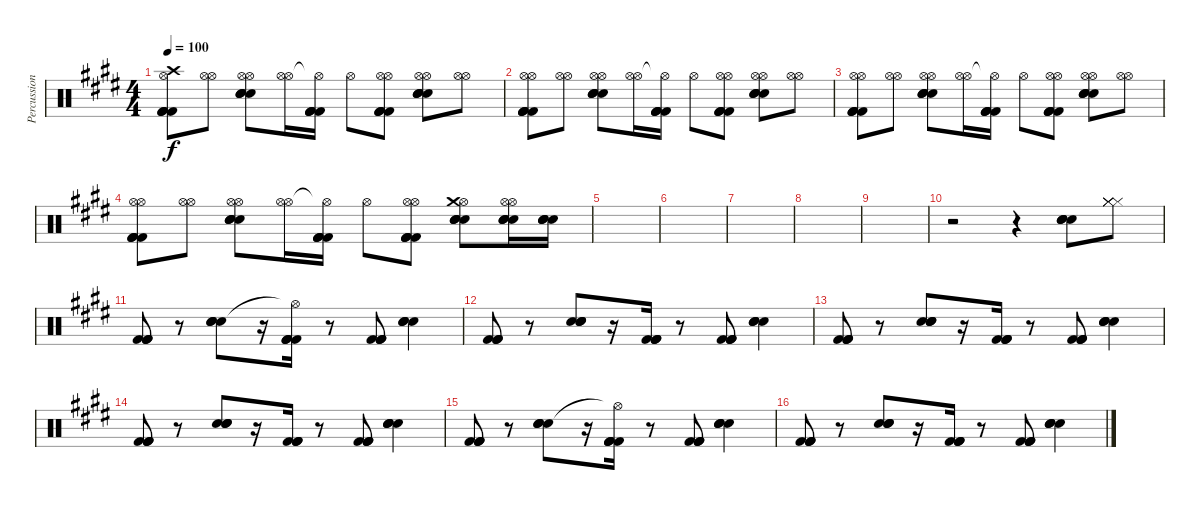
\track ("Percussion" "Percussion") {instrument percussion}
\staff {score}
\articulation defaults
\ts (4 4)
\tempo 100
\clef neutral
\ks e
("Hi-Hat (open)" "Kick (hit) 2" "Kick (hit) 2" "Kick (hit) 2" "Kick (hit) 2" "Crash high (hit)").8{dy f} ("Hi-Hat (open)" "Hi-Hat (open)").8 ("Hi-Hat (open)" "Electric Snare (hit)" "Electric Snare (hit)" "Electric Snare (hit)" "Electric Snare (hit)" "Hi-Hat (open)").8 ("Hi-Hat (open)" "Hi-Hat (open)").16 ("Hi-Hat (open)"{t} "Kick (hit) 2" "Kick (hit) 2" "Kick (hit) 2" "Kick (hit) 2").16 "Hi-Hat (open)".8 ("Hi-Hat (open)" "Kick (hit) 2" "Kick (hit) 2" "Kick (hit) 2" "Kick (hit) 2" "Hi-Hat (open)").8 ("Hi-Hat (open)" "Electric Snare (hit)" "Electric Snare (hit)" "Electric Snare (hit)" "Electric Snare (hit)" "Hi-Hat (open)").8 ("Hi-Hat (open)" "Hi-Hat (open)").8 |
("Hi-Hat (open)" "Kick (hit) 2" "Kick (hit) 2" "Kick (hit) 2" "Kick (hit) 2" "Hi-Hat (open)").8 ("Hi-Hat (open)" "Hi-Hat (open)").8 ("Hi-Hat (open)" "Electric Snare (hit)" "Electric Snare (hit)" "Electric Snare (hit)" "Electric Snare (hit)" "Hi-Hat (open)").8 ("Hi-Hat (open)" "Hi-Hat (open)").16 ("Hi-Hat (open)"{t} "Kick (hit) 2" "Kick (hit) 2" "Kick (hit) 2" "Kick (hit) 2").16 "Hi-Hat (open)".8 ("Hi-Hat (open)" "Kick (hit) 2" "Kick (hit) 2" "Kick (hit) 2" "Kick (hit) 2" "Hi-Hat (open)").8 ("Hi-Hat (open)" "Electric Snare (hit)" "Electric Snare (hit)" "Electric Snare (hit)" "Electric Snare (hit)" "Hi-Hat (open)").8 ("Hi-Hat (open)" "Hi-Hat (open)").8 |
("Hi-Hat (open)" "Kick (hit) 2" "Kick (hit) 2" "Kick (hit) 2" "Kick (hit) 2" "Hi-Hat (open)").8 ("Hi-Hat (open)" "Hi-Hat (open)").8 ("Hi-Hat (open)" "Electric Snare (hit)" "Electric Snare (hit)" "Electric Snare (hit)" "Electric Snare (hit)" "Hi-Hat (open)").8 ("Hi-Hat (open)" "Hi-Hat (open)").16 ("Hi-Hat (open)"{t} "Kick (hit) 2" "Kick (hit) 2" "Kick (hit) 2" "Kick (hit) 2").16 "Hi-Hat (open)".8 ("Hi-Hat (open)" "Kick (hit) 2" "Kick (hit) 2" "Kick (hit) 2" "Kick (hit) 2" "Hi-Hat (open)").8 ("Hi-Hat (open)" "Electric Snare (hit)" "Electric Snare (hit)" "Electric Snare (hit)" "Electric Snare (hit)" "Hi-Hat (open)").8 ("Hi-Hat (open)" "Hi-Hat (open)").8 |
("Hi-Hat (open)" "Kick (hit) 2" "Kick (hit) 2" "Kick (hit) 2" "Kick (hit) 2" "Hi-Hat (open)").8 ("Hi-Hat (open)" "Hi-Hat (open)").8 ("Hi-Hat (open)" "Electric Snare (hit)" "Electric Snare (hit)" "Electric Snare (hit)" "Electric Snare (hit)" "Hi-Hat (open)").8 ("Hi-Hat (open)" "Hi-Hat (open)").16 ("Hi-Hat (open)"{t} "Kick (hit) 2" "Kick (hit) 2" "Kick (hit) 2" "Kick (hit) 2").16 "Hi-Hat (open)".8 ("Hi-Hat (open)" "Kick (hit) 2" "Kick (hit) 2" "Kick (hit) 2" "Kick (hit) 2" "Hi-Hat (open)").8 ("Hi-Hat (open)" "Electric Snare (hit)" "Electric Snare (hit)" "Electric Snare (hit)" "Electric Snare (hit)" "Crash medium (hit)").8 ("Hi-Hat (open)" "Electric Snare (hit)" "Electric Snare (hit)" "Electric Snare (hit)" "Electric Snare (hit)" "Hi-Hat (open)").16 ("Electric Snare (hit)" "Electric Snare (hit)" "Electric Snare (hit)" "Electric Snare (hit)").16 |
|
|
|
|
|
r.2 r.4 ("Electric Snare (hit)" "Electric Snare (hit)" "Electric Snare (hit)" "Electric Snare (hit)").8 ("Hi-Hat (closed)" "Hi-Hat (closed)" "Hi-Hat (closed)" "Hi-Hat (closed)").8 |
("Kick (hit) 2" "Kick (hit) 2" "Kick (hit) 2" "Kick (hit) 2").8 r.8 ("Electric Snare (hit)" "Electric Snare (hit)" "Electric Snare (hit)" "Electric Snare (hit)").8 r.16 ("Hi-Hat (open)"{t} "Kick (hit) 2" "Kick (hit) 2" "Kick (hit) 2" "Kick (hit) 2").16 r.8 ("Kick (hit) 2" "Kick (hit) 2" "Kick (hit) 2" "Kick (hit) 2").8 ("Electric Snare (hit)" "Electric Snare (hit)" "Electric Snare (hit)" "Electric Snare (hit)").4 |
("Kick (hit) 2" "Kick (hit) 2" "Kick (hit) 2" "Kick (hit) 2").8 r.8 ("Electric Snare (hit)" "Electric Snare (hit)" "Electric Snare (hit)" "Electric Snare (hit)").8 r.16 ("Kick (hit) 2" "Kick (hit) 2" "Kick (hit) 2" "Kick (hit) 2").16 r.8 ("Kick (hit) 2" "Kick (hit) 2" "Kick (hit) 2" "Kick (hit) 2").8 ("Electric Snare (hit)" "Electric Snare (hit)" "Electric Snare (hit)" "Electric Snare (hit)").4 |
("Kick (hit) 2" "Kick (hit) 2" "Kick (hit) 2" "Kick (hit) 2").8 r.8 ("Electric Snare (hit)" "Electric Snare (hit)" "Electric Snare (hit)" "Electric Snare (hit)").8 r.16 ("Kick (hit) 2" "Kick (hit) 2" "Kick (hit) 2" "Kick (hit) 2").16 r.8 ("Kick (hit) 2" "Kick (hit) 2" "Kick (hit) 2" "Kick (hit) 2").8 ("Electric Snare (hit)" "Electric Snare (hit)" "Electric Snare (hit)" "Electric Snare (hit)").4 |
("Kick (hit) 2" "Kick (hit) 2" "Kick (hit) 2" "Kick (hit) 2").8 r.8 ("Electric Snare (hit)" "Electric Snare (hit)" "Electric Snare (hit)" "Electric Snare (hit)").8 r.16 ("Kick (hit) 2" "Kick (hit) 2" "Kick (hit) 2" "Kick (hit) 2").16 r.8 ("Kick (hit) 2" "Kick (hit) 2" "Kick (hit) 2" "Kick (hit) 2").8 ("Electric Snare (hit)" "Electric Snare (hit)" "Electric Snare (hit)" "Electric Snare (hit)").4 |
("Kick (hit) 2" "Kick (hit) 2" "Kick (hit) 2" "Kick (hit) 2").8 r.8 ("Electric Snare (hit)" "Electric Snare (hit)" "Electric Snare (hit)" "Electric Snare (hit)").8 r.16 ("Hi-Hat (open)"{t} "Kick (hit) 2" "Kick (hit) 2" "Kick (hit) 2" "Kick (hit) 2").16 r.8 ("Kick (hit) 2" "Kick (hit) 2" "Kick (hit) 2" "Kick (hit) 2").8 ("Electric Snare (hit)" "Electric Snare (hit)" "Electric Snare (hit)" "Electric Snare (hit)").4 |
("Kick (hit) 2" "Kick (hit) 2" "Kick (hit) 2" "Kick (hit) 2").8 r.8 ("Electric Snare (hit)" "Electric Snare (hit)" "Electric Snare (hit)" "Electric Snare (hit)").8 r.16 ("Kick (hit) 2" "Kick (hit) 2" "Kick (hit) 2" "Kick (hit) 2").16 r.8 ("Kick (hit) 2" "Kick (hit) 2" "Kick (hit) 2" "Kick (hit) 2").8 ("Electric Snare (hit)" "Electric Snare (hit)" "Electric Snare (hit)" "Electric Snare (hit)").4
